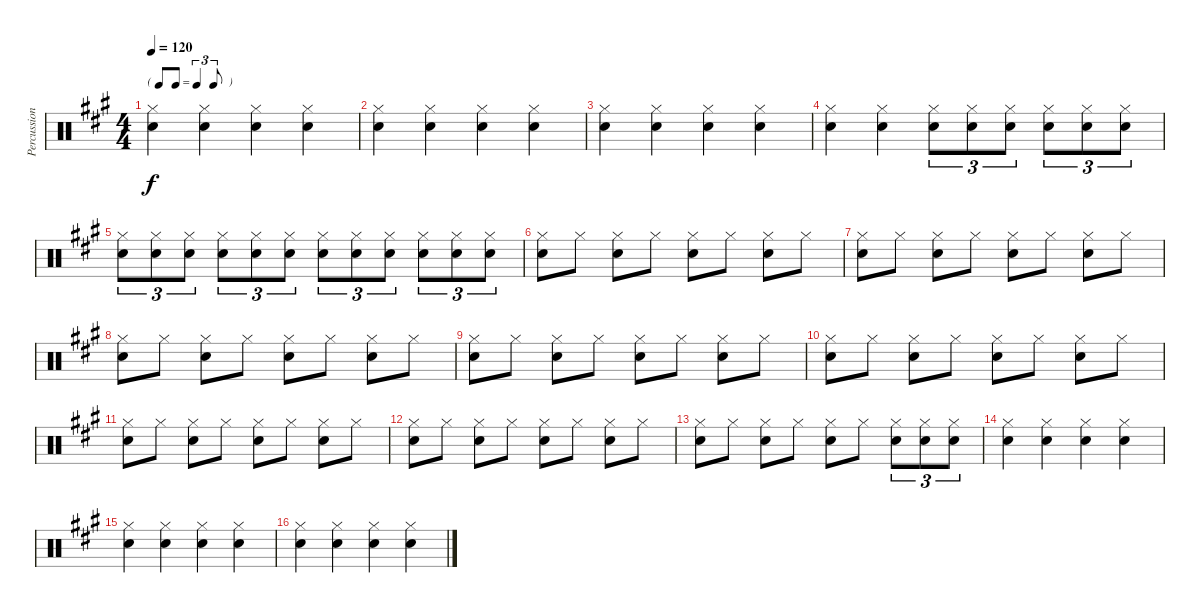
\track ("Percussions" "Percussion") {instrument percussion}
\staff {score}
\articulation defaults
\ts (4 4)
\tf triplet8th
\tempo 120
\clef neutral
\ks a
("Snare (hit) 2" "Hi-Hat (closed)").4{dy f} ("Snare (hit) 2" "Hi-Hat (closed)").4 ("Snare (hit) 2" "Hi-Hat (closed)").4 ("Snare (hit) 2" "Hi-Hat (closed)").4 |
("Snare (hit) 2" "Hi-Hat (closed)").4 ("Snare (hit) 2" "Hi-Hat (closed)").4 ("Snare (hit) 2" "Hi-Hat (closed)").4 ("Snare (hit) 2" "Hi-Hat (closed)").4 |
("Snare (hit) 2" "Hi-Hat (closed)").4 ("Snare (hit) 2" "Hi-Hat (closed)").4 ("Snare (hit) 2" "Hi-Hat (closed)").4 ("Snare (hit) 2" "Hi-Hat (closed)").4 |
("Snare (hit) 2" "Hi-Hat (closed)").4 ("Snare (hit) 2" "Hi-Hat (closed)").4 ("Snare (hit) 2" "Hi-Hat (closed)").8{tu (3 2)} ("Snare (hit) 2" "Hi-Hat (closed)").8{tu (3 2)} ("Snare (hit) 2" "Hi-Hat (closed)").8{tu (3 2)} ("Snare (hit) 2" "Hi-Hat (closed)").8{tu (3 2)} ("Snare (hit) 2" "Hi-Hat (closed)").8{tu (3 2)} ("Snare (hit) 2" "Hi-Hat (closed)").8{tu (3 2)} |
("Snare (hit) 2" "Hi-Hat (closed)").8{tu (3 2)} ("Snare (hit) 2" "Hi-Hat (closed)").8{tu (3 2)} ("Snare (hit) 2" "Hi-Hat (closed)").8{tu (3 2)} ("Snare (hit) 2" "Hi-Hat (closed)").8{tu (3 2)} ("Snare (hit) 2" "Hi-Hat (closed)").8{tu (3 2)} ("Snare (hit) 2" "Hi-Hat (closed)").8{tu (3 2)} ("Snare (hit) 2" "Hi-Hat (closed)").8{tu (3 2)} ("Snare (hit) 2" "Hi-Hat (closed)").8{tu (3 2)} ("Snare (hit) 2" "Hi-Hat (closed)").8{tu (3 2)} ("Snare (hit) 2" "Hi-Hat (closed)").8{tu (3 2)} ("Snare (hit) 2" "Hi-Hat (closed)").8{tu (3 2)} ("Snare (hit) 2" "Hi-Hat (closed)").8{tu (3 2)} |
("Snare (hit) 2" "Hi-Hat (closed)").8 "Hi-Hat (closed)".8 ("Snare (hit) 2" "Hi-Hat (closed)").8 "Hi-Hat (closed)".8 ("Snare (hit) 2" "Hi-Hat (closed)").8 "Hi-Hat (closed)".8 ("Snare (hit) 2" "Hi-Hat (closed)").8 "Hi-Hat (closed)".8 |
("Snare (hit) 2" "Hi-Hat (closed)").8 "Hi-Hat (closed)".8 ("Snare (hit) 2" "Hi-Hat (closed)").8 "Hi-Hat (closed)".8 ("Snare (hit) 2" "Hi-Hat (closed)").8 "Hi-Hat (closed)".8 ("Snare (hit) 2" "Hi-Hat (closed)").8 "Hi-Hat (closed)".8 |
("Snare (hit) 2" "Hi-Hat (closed)").8 "Hi-Hat (closed)".8 ("Snare (hit) 2" "Hi-Hat (closed)").8 "Hi-Hat (closed)".8 ("Snare (hit) 2" "Hi-Hat (closed)").8 "Hi-Hat (closed)".8 ("Snare (hit) 2" "Hi-Hat (closed)").8 "Hi-Hat (closed)".8 |
("Snare (hit) 2" "Hi-Hat (closed)").8 "Hi-Hat (closed)".8 ("Snare (hit) 2" "Hi-Hat (closed)").8 "Hi-Hat (closed)".8 ("Snare (hit) 2" "Hi-Hat (closed)").8 "Hi-Hat (closed)".8 ("Snare (hit) 2" "Hi-Hat (closed)").8 "Hi-Hat (closed)".8 |
("Snare (hit) 2" "Hi-Hat (closed)").8 "Hi-Hat (closed)".8 ("Snare (hit) 2" "Hi-Hat (closed)").8 "Hi-Hat (closed)".8 ("Snare (hit) 2" "Hi-Hat (closed)").8 "Hi-Hat (closed)".8 ("Snare (hit) 2" "Hi-Hat (closed)").8 "Hi-Hat (closed)".8 |
("Snare (hit) 2" "Hi-Hat (closed)").8 "Hi-Hat (closed)".8 ("Snare (hit) 2" "Hi-Hat (closed)").8 "Hi-Hat (closed)".8 ("Snare (hit) 2" "Hi-Hat (closed)").8 "Hi-Hat (closed)".8 ("Snare (hit) 2" "Hi-Hat (closed)").8 "Hi-Hat (closed)".8 |
("Snare (hit) 2" "Hi-Hat (closed)").8 "Hi-Hat (closed)".8 ("Snare (hit) 2" "Hi-Hat (closed)").8 "Hi-Hat (closed)".8 ("Snare (hit) 2" "Hi-Hat (closed)").8 "Hi-Hat (closed)".8 ("Snare (hit) 2" "Hi-Hat (closed)").8 "Hi-Hat (closed)".8 |
("Snare (hit) 2" "Hi-Hat (closed)").8 "Hi-Hat (closed)".8 ("Snare (hit) 2" "Hi-Hat (closed)").8 "Hi-Hat (closed)".8 ("Snare (hit) 2" "Hi-Hat (closed)").8 "Hi-Hat (closed)".8 ("Hi-Hat (closed)" "Snare (hit) 2").8{tu (3 2)} ("Hi-Hat (closed)" "Snare (hit) 2").8{tu (3 2)} ("Hi-Hat (closed)" "Snare (hit) 2").8{tu (3 2)} |
("Snare (hit) 2" "Hi-Hat (closed)").4 ("Snare (hit) 2" "Hi-Hat (closed)").4 ("Snare (hit) 2" "Hi-Hat (closed)").4 ("Snare (hit) 2" "Hi-Hat (closed)").4 |
("Snare (hit) 2" "Hi-Hat (closed)").4 ("Snare (hit) 2" "Hi-Hat (closed)").4 ("Snare (hit) 2" "Hi-Hat (closed)").4 ("Snare (hit) 2" "Hi-Hat (closed)").4 |
("Snare (hit) 2" "Hi-Hat (closed)").4 ("Snare (hit) 2" "Hi-Hat (closed)").4 ("Snare (hit) 2" "Hi-Hat (closed)").4 ("Snare (hit) 2" "Hi-Hat (closed)").4
